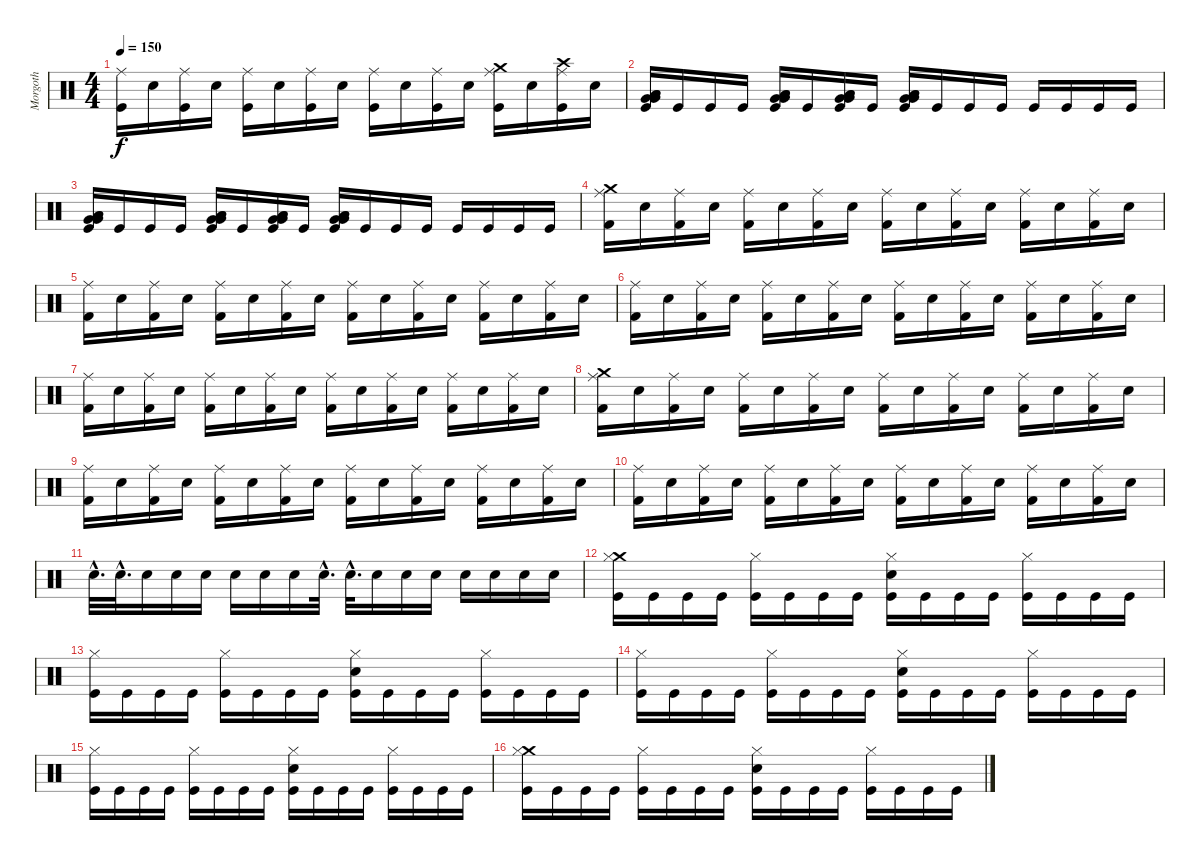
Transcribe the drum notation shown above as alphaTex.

\track ("Morgoth" "Morgoth") {instrument percussion}
\staff {score}
\articulation defaults
\ts (4 4)
\tempo 150
\clef neutral
\ks c
("Kick (hit)" "Ride (middle)").16{dy f} "Electric Snare (hit)".16 ("Kick (hit)" "Ride (middle)").16 "Electric Snare (hit)".16 ("Kick (hit)" "Ride (middle)").16 "Electric Snare (hit)".16 ("Kick (hit)" "Ride (middle)").16 "Electric Snare (hit)".16 ("Kick (hit)" "Ride (middle)").16 "Electric Snare (hit)".16 ("Kick (hit)" "Ride (middle)").16 "Electric Snare (hit)".16 ("Kick (hit)" "Ride (middle)" "Crash medium (hit)").16 "Electric Snare (hit)".16 ("Kick (hit)" "Ride (middle)" "Crash high (hit)").16 "Electric Snare (hit)".16 |
("Low Tom (hit)" "Low Tom (hit)" "Very Low Tom (hit)" "Very Low Tom (hit)" "Kick (hit)").16 "Kick (hit)".16 "Kick (hit)".16 "Kick (hit)".16 ("Low Tom (hit)" "Low Tom (hit)" "Very Low Tom (hit)" "Very Low Tom (hit)" "Kick (hit)").16 "Kick (hit)".16 ("Low Tom (hit)" "Low Tom (hit)" "Very Low Tom (hit)" "Very Low Tom (hit)" "Kick (hit)").16 "Kick (hit)".16 ("Low Tom (hit)" "Low Tom (hit)" "Very Low Tom (hit)" "Very Low Tom (hit)" "Kick (hit)").16 "Kick (hit)".16 "Kick (hit)".16 "Kick (hit)".16 "Kick (hit)".16 "Kick (hit)".16 "Kick (hit)".16 "Kick (hit)".16 |
("Low Tom (hit)" "Low Tom (hit)" "Very Low Tom (hit)" "Very Low Tom (hit)" "Kick (hit)").16 "Kick (hit)".16 "Kick (hit)".16 "Kick (hit)".16 ("Low Tom (hit)" "Low Tom (hit)" "Very Low Tom (hit)" "Very Low Tom (hit)" "Kick (hit)").16 "Kick (hit)".16 ("Low Tom (hit)" "Low Tom (hit)" "Very Low Tom (hit)" "Very Low Tom (hit)" "Kick (hit)").16 "Kick (hit)".16 ("Low Tom (hit)" "Low Tom (hit)" "Very Low Tom (hit)" "Very Low Tom (hit)" "Kick (hit)").16 "Kick (hit)".16 "Kick (hit)".16 "Kick (hit)".16 "Kick (hit)".16 "Kick (hit)".16 "Kick (hit)".16 "Kick (hit)".16 |
("Crash medium (hit)" "Ride (middle)" "Kick (hit) 2").16 "Electric Snare (hit)".16 ("Ride (middle)" "Kick (hit) 2").16 "Electric Snare (hit)".16 ("Ride (middle)" "Kick (hit) 2").16 "Electric Snare (hit)".16 ("Ride (middle)" "Kick (hit) 2").16 "Electric Snare (hit)".16 ("Ride (middle)" "Kick (hit) 2").16 "Electric Snare (hit)".16 ("Ride (middle)" "Kick (hit) 2").16 "Electric Snare (hit)".16 ("Ride (middle)" "Kick (hit) 2").16 "Electric Snare (hit)".16 ("Ride (middle)" "Kick (hit) 2").16 "Electric Snare (hit)".16 |
("Ride (middle)" "Kick (hit) 2").16 "Electric Snare (hit)".16 ("Ride (middle)" "Kick (hit) 2").16 "Electric Snare (hit)".16 ("Ride (middle)" "Kick (hit) 2").16 "Electric Snare (hit)".16 ("Ride (middle)" "Kick (hit) 2").16 "Electric Snare (hit)".16 ("Ride (middle)" "Kick (hit) 2").16 "Electric Snare (hit)".16 ("Ride (middle)" "Kick (hit) 2").16 "Electric Snare (hit)".16 ("Ride (middle)" "Kick (hit) 2").16 "Electric Snare (hit)".16 ("Ride (middle)" "Kick (hit) 2").16 "Electric Snare (hit)".16 |
("Ride (middle)" "Kick (hit) 2").16 "Electric Snare (hit)".16 ("Ride (middle)" "Kick (hit) 2").16 "Electric Snare (hit)".16 ("Ride (middle)" "Kick (hit) 2").16 "Electric Snare (hit)".16 ("Ride (middle)" "Kick (hit) 2").16 "Electric Snare (hit)".16 ("Ride (middle)" "Kick (hit) 2").16 "Electric Snare (hit)".16 ("Ride (middle)" "Kick (hit) 2").16 "Electric Snare (hit)".16 ("Ride (middle)" "Kick (hit) 2").16 "Electric Snare (hit)".16 ("Ride (middle)" "Kick (hit) 2").16 "Electric Snare (hit)".16 |
("Ride (middle)" "Kick (hit) 2").16 "Electric Snare (hit)".16 ("Ride (middle)" "Kick (hit) 2").16 "Electric Snare (hit)".16 ("Ride (middle)" "Kick (hit) 2").16 "Electric Snare (hit)".16 ("Ride (middle)" "Kick (hit) 2").16 "Electric Snare (hit)".16 ("Ride (middle)" "Kick (hit) 2").16 "Electric Snare (hit)".16 ("Ride (middle)" "Kick (hit) 2").16 "Electric Snare (hit)".16 ("Ride (middle)" "Kick (hit) 2").16 "Electric Snare (hit)".16 ("Ride (middle)" "Kick (hit) 2").16 "Electric Snare (hit)".16 |
("Crash medium (hit)" "Ride (middle)" "Kick (hit) 2").16 "Electric Snare (hit)".16 ("Ride (middle)" "Kick (hit) 2").16 "Electric Snare (hit)".16 ("Ride (middle)" "Kick (hit) 2").16 "Electric Snare (hit)".16 ("Ride (middle)" "Kick (hit) 2").16 "Electric Snare (hit)".16 ("Ride (middle)" "Kick (hit) 2").16 "Electric Snare (hit)".16 ("Ride (middle)" "Kick (hit) 2").16 "Electric Snare (hit)".16 ("Ride (middle)" "Kick (hit) 2").16 "Electric Snare (hit)".16 ("Ride (middle)" "Kick (hit) 2").16 "Electric Snare (hit)".16 |
("Ride (middle)" "Kick (hit) 2").16 "Electric Snare (hit)".16 ("Ride (middle)" "Kick (hit) 2").16 "Electric Snare (hit)".16 ("Ride (middle)" "Kick (hit) 2").16 "Electric Snare (hit)".16 ("Ride (middle)" "Kick (hit) 2").16 "Electric Snare (hit)".16 ("Ride (middle)" "Kick (hit) 2").16 "Electric Snare (hit)".16 ("Ride (middle)" "Kick (hit) 2").16 "Electric Snare (hit)".16 ("Ride (middle)" "Kick (hit) 2").16 "Electric Snare (hit)".16 ("Ride (middle)" "Kick (hit) 2").16 "Electric Snare (hit)".16 |
("Ride (middle)" "Kick (hit) 2").16 "Electric Snare (hit)".16 ("Ride (middle)" "Kick (hit) 2").16 "Electric Snare (hit)".16 ("Ride (middle)" "Kick (hit) 2").16 "Electric Snare (hit)".16 ("Ride (middle)" "Kick (hit) 2").16 "Electric Snare (hit)".16 ("Ride (middle)" "Kick (hit) 2").16 "Electric Snare (hit)".16 ("Ride (middle)" "Kick (hit) 2").16 "Electric Snare (hit)".16 ("Ride (middle)" "Kick (hit) 2").16 "Electric Snare (hit)".16 ("Ride (middle)" "Kick (hit) 2").16 "Electric Snare (hit)".16 |
"Electric Snare (hit)"{hac}.32{d} "Electric Snare (hit)"{hac}.32{d} "Electric Snare (hit)".16 "Electric Snare (hit)".16 "Electric Snare (hit)".16 "Electric Snare (hit)".16 "Electric Snare (hit)".16 "Electric Snare (hit)".16 "Electric Snare (hit)"{hac}.32{d} "Electric Snare (hit)"{hac}.32{d} "Electric Snare (hit)".16 "Electric Snare (hit)".16 "Electric Snare (hit)".16 "Electric Snare (hit)".16 "Electric Snare (hit)".16 "Electric Snare (hit)".16 "Electric Snare (hit)".16 |
("Crash medium (hit)" "Hi-Hat (closed)" "Kick (hit)").16 "Kick (hit)".16 "Kick (hit)".16 "Kick (hit)".16 ("Hi-Hat (closed)" "Kick (hit)").16 "Kick (hit)".16 "Kick (hit)".16 "Kick (hit)".16 ("Hi-Hat (closed)" "Electric Snare (hit)" "Kick (hit)").16 "Kick (hit)".16 "Kick (hit)".16 "Kick (hit)".16 ("Hi-Hat (closed)" "Kick (hit)").16 "Kick (hit)".16 "Kick (hit)".16 "Kick (hit)".16 |
("Hi-Hat (closed)" "Kick (hit)").16 "Kick (hit)".16 "Kick (hit)".16 "Kick (hit)".16 ("Hi-Hat (closed)" "Kick (hit)").16 "Kick (hit)".16 "Kick (hit)".16 "Kick (hit)".16 ("Hi-Hat (closed)" "Electric Snare (hit)" "Kick (hit)").16 "Kick (hit)".16 "Kick (hit)".16 "Kick (hit)".16 ("Hi-Hat (closed)" "Kick (hit)").16 "Kick (hit)".16 "Kick (hit)".16 "Kick (hit)".16 |
("Hi-Hat (closed)" "Kick (hit)").16 "Kick (hit)".16 "Kick (hit)".16 "Kick (hit)".16 ("Hi-Hat (closed)" "Kick (hit)").16 "Kick (hit)".16 "Kick (hit)".16 "Kick (hit)".16 ("Hi-Hat (closed)" "Electric Snare (hit)" "Kick (hit)").16 "Kick (hit)".16 "Kick (hit)".16 "Kick (hit)".16 ("Hi-Hat (closed)" "Kick (hit)").16 "Kick (hit)".16 "Kick (hit)".16 "Kick (hit)".16 |
("Hi-Hat (closed)" "Kick (hit)").16 "Kick (hit)".16 "Kick (hit)".16 "Kick (hit)".16 ("Hi-Hat (closed)" "Kick (hit)").16 "Kick (hit)".16 "Kick (hit)".16 "Kick (hit)".16 ("Hi-Hat (closed)" "Electric Snare (hit)" "Kick (hit)").16 "Kick (hit)".16 "Kick (hit)".16 "Kick (hit)".16 ("Hi-Hat (closed)" "Kick (hit)").16 "Kick (hit)".16 "Kick (hit)".16 "Kick (hit)".16 |
("Crash medium (hit)" "Hi-Hat (closed)" "Kick (hit)").16 "Kick (hit)".16 "Kick (hit)".16 "Kick (hit)".16 ("Hi-Hat (closed)" "Kick (hit)").16 "Kick (hit)".16 "Kick (hit)".16 "Kick (hit)".16 ("Hi-Hat (closed)" "Electric Snare (hit)" "Kick (hit)").16 "Kick (hit)".16 "Kick (hit)".16 "Kick (hit)".16 ("Hi-Hat (closed)" "Kick (hit)").16 "Kick (hit)".16 "Kick (hit)".16 "Kick (hit)".16
